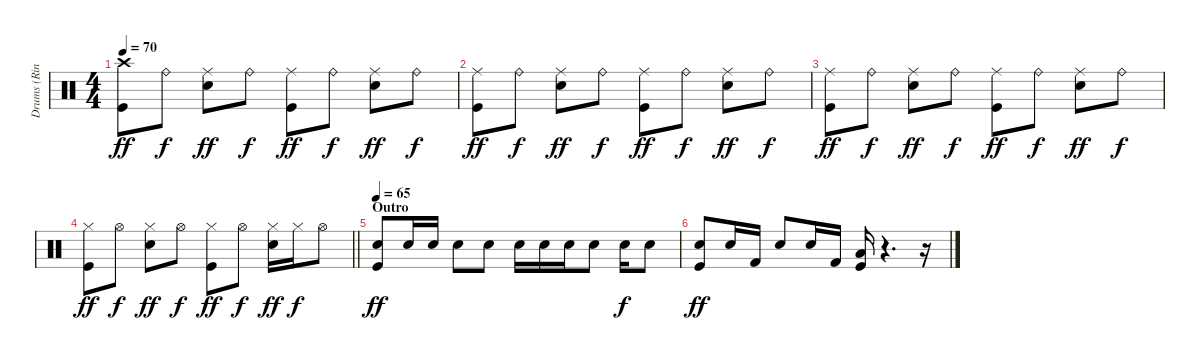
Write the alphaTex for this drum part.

\track ("Drums (Ringo Starr)" "Drums (Rin") {instrument percussion}
\staff {score}
\articulation defaults
\ts (4 4)
\tempo 70
\clef neutral
\ks c
("Crash high (hit)" "Kick (hit)").8{dy ff} "Ride (bell)".8{dy f} ("Ride (middle)" "Snare (hit) 2").8{dy ff} "Ride (bell)".8{dy f} ("Ride (middle)" "Kick (hit)").8{dy ff} "Ride (bell)".8{dy f} ("Ride (middle)" "Snare (hit) 2").8{dy ff} "Ride (bell)".8{dy f} |
("Ride (middle)" "Kick (hit)").8{dy ff} "Ride (bell)".8{dy f} ("Ride (middle)" "Snare (hit) 2").8{dy ff} "Ride (bell)".8{dy f} ("Ride (middle)" "Kick (hit)").8{dy ff} "Ride (bell)".8{dy f} ("Ride (middle)" "Snare (hit) 2").8{dy ff} "Ride (bell)".8{dy f} |
("Ride (middle)" "Kick (hit)").8{dy ff} "Ride (bell)".8{dy f} ("Ride (middle)" "Snare (hit) 2").8{dy ff} "Ride (bell)".8{dy f} ("Ride (middle)" "Kick (hit)").8{dy ff} "Ride (bell)".8{dy f} ("Ride (middle)" "Snare (hit) 2").8{dy ff} "Ride (bell)".8{dy f} |
\barLineRight lightlight
("Hi-Hat (closed)" "Kick (hit)").8{dy ff} "Hi-Hat (open)".8{dy f} ("Hi-Hat (closed)" "Snare (hit) 2").8{dy ff} "Hi-Hat (open)".8{dy f} ("Hi-Hat (closed)" "Kick (hit)").8{dy ff} "Hi-Hat (open)".8{dy f} ("Hi-Hat (closed)" "Snare (hit) 2").16{dy ff} "Hi-Hat (closed)".16{dy f} "Hi-Hat (open)".8 |
\section ("" "Outro")
\tempo 65
("Kick (hit)" "Electric Snare (hit)").8{dy ff} "Electric Snare (hit)".16 "Electric Snare (hit)".16 "Electric Snare (hit)".8 "Snare (hit) 2".8 "Snare (hit) 2".16 "Snare (hit) 2".16 "Snare (hit) 2".16 "Snare (hit) 2".8 "Snare (hit) 2".16{dy f} "Snare (hit) 2".8 |
("Snare (hit) 2" "Kick (hit)").8{dy ff} "Snare (hit) 2".16 "Kick (hit) 2".16 "Snare (hit) 2".8 "Snare (hit) 2".16 "Kick (hit) 2".16 ("Kick (hit)" "Low Floor Tom (hit)").16 r.4{d} r.16
